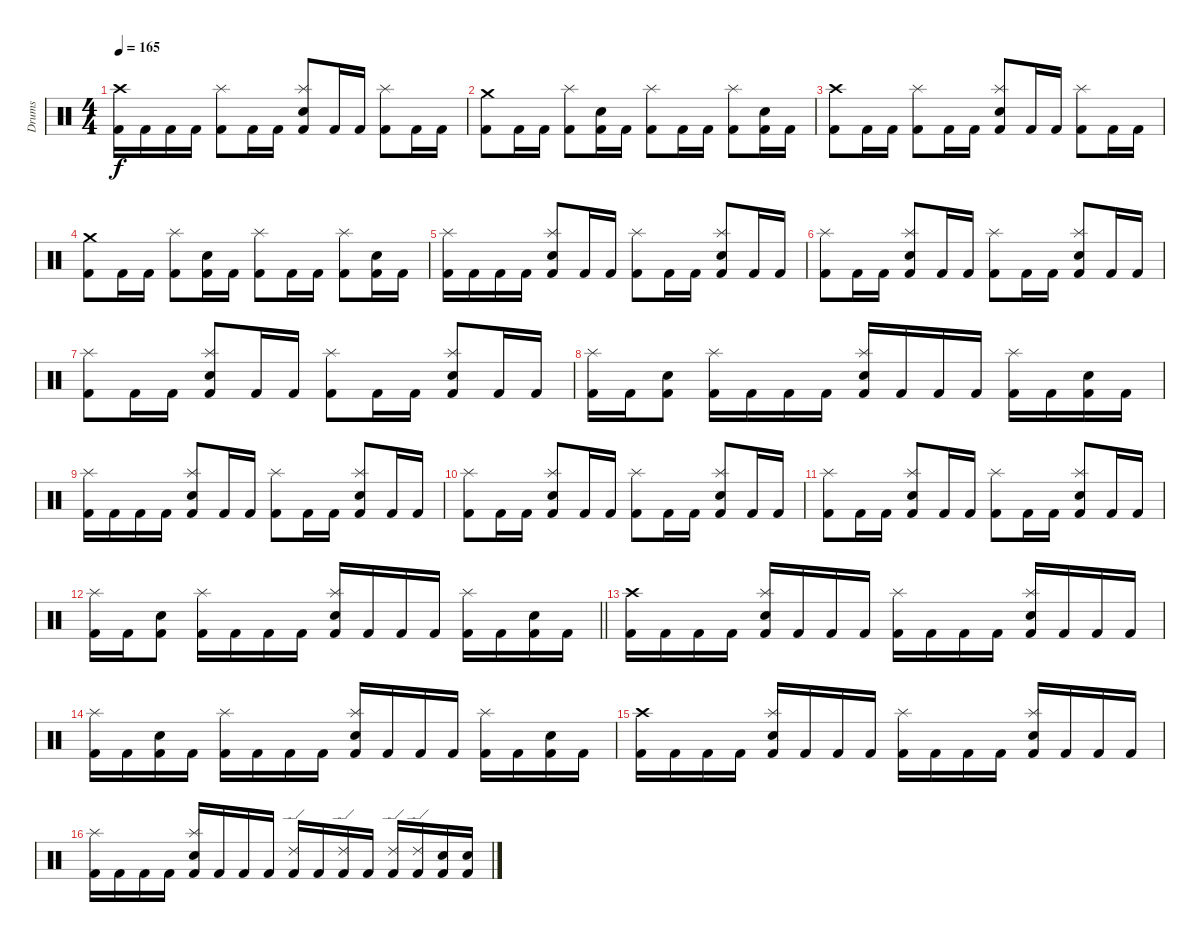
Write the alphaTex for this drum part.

\track ("Drums" "Drums") {instrument percussion}
\staff {score}
\articulation defaults
\ts (4 4)
\tempo 165
\clef neutral
\ks c
("Crash high (hit)" "Kick (hit) 2").16{dy f} "Kick (hit) 2".16 "Kick (hit) 2".16 "Kick (hit) 2".16 ("Splash (hit)" "Kick (hit) 2").8 "Kick (hit) 2".16 "Kick (hit) 2".16 ("Splash (hit)" "Snare (hit) 2" "Kick (hit) 2").8 "Kick (hit) 2".16 "Kick (hit) 2".16 ("Splash (hit)" "Kick (hit) 2").8 "Kick (hit) 2".16 "Kick (hit) 2".16 |
("Crash medium (hit)" "Kick (hit) 2").8 "Kick (hit) 2".16 "Kick (hit) 2".16 ("Splash (hit)" "Kick (hit) 2").8 ("Snare (hit) 2" "Kick (hit) 2").16 "Kick (hit) 2".16 ("Splash (hit)" "Kick (hit) 2").8 "Kick (hit) 2".16 "Kick (hit) 2".16 ("Splash (hit)" "Kick (hit) 2").8 ("Snare (hit) 2" "Kick (hit) 2").16 "Kick (hit) 2".16 |
("Crash high (hit)" "Kick (hit) 2").8 "Kick (hit) 2".16 "Kick (hit) 2".16 ("Splash (hit)" "Kick (hit) 2").8 "Kick (hit) 2".16 "Kick (hit) 2".16 ("Splash (hit)" "Snare (hit) 2" "Kick (hit) 2").8 "Kick (hit) 2".16 "Kick (hit) 2".16 ("Splash (hit)" "Kick (hit) 2").8 "Kick (hit) 2".16 "Kick (hit) 2".16 |
("Crash medium (hit)" "Kick (hit) 2").8 "Kick (hit) 2".16 "Kick (hit) 2".16 ("Splash (hit)" "Kick (hit) 2").8 ("Snare (hit) 2" "Kick (hit) 2").16 "Kick (hit) 2".16 ("Splash (hit)" "Kick (hit) 2").8 "Kick (hit) 2".16 "Kick (hit) 2".16 ("Splash (hit)" "Kick (hit) 2").8 ("Snare (hit) 2" "Kick (hit) 2").16 "Kick (hit) 2".16 |
("Splash (hit)" "Kick (hit) 2").16 "Kick (hit) 2".16 "Kick (hit) 2".16 "Kick (hit) 2".16 ("Splash (hit)" "Snare (hit) 2" "Kick (hit) 2").8 "Kick (hit) 2".16 "Kick (hit) 2".16 ("Splash (hit)" "Kick (hit) 2").8 "Kick (hit) 2".16 "Kick (hit) 2".16 ("Splash (hit)" "Snare (hit) 2" "Kick (hit) 2").8 "Kick (hit) 2".16 "Kick (hit) 2".16 |
("Splash (hit)" "Kick (hit) 2").8 "Kick (hit) 2".16 "Kick (hit) 2".16 ("Splash (hit)" "Snare (hit) 2" "Kick (hit) 2").8 "Kick (hit) 2".16 "Kick (hit) 2".16 ("Splash (hit)" "Kick (hit) 2").8 "Kick (hit) 2".16 "Kick (hit) 2".16 ("Splash (hit)" "Snare (hit) 2" "Kick (hit) 2").8 "Kick (hit) 2".16 "Kick (hit) 2".16 |
("Splash (hit)" "Kick (hit) 2").8 "Kick (hit) 2".16 "Kick (hit) 2".16 ("Splash (hit)" "Snare (hit) 2" "Kick (hit) 2").8 "Kick (hit) 2".16 "Kick (hit) 2".16 ("Splash (hit)" "Kick (hit) 2").8 "Kick (hit) 2".16 "Kick (hit) 2".16 ("Splash (hit)" "Snare (hit) 2" "Kick (hit) 2").8 "Kick (hit) 2".16 "Kick (hit) 2".16 |
("Splash (hit)" "Kick (hit) 2").16 "Kick (hit) 2".16 ("Snare (hit) 2" "Kick (hit) 2").8 ("Splash (hit)" "Kick (hit) 2").16 "Kick (hit) 2".16 "Kick (hit) 2".16 "Kick (hit) 2".16 ("Splash (hit)" "Snare (hit) 2" "Kick (hit) 2").16 "Kick (hit) 2".16 "Kick (hit) 2".16 "Kick (hit) 2".16 ("Splash (hit)" "Kick (hit) 2").16 "Kick (hit) 2".16 ("Snare (hit) 2" "Kick (hit) 2").16 "Kick (hit) 2".16 |
("Splash (hit)" "Kick (hit) 2").16 "Kick (hit) 2".16 "Kick (hit) 2".16 "Kick (hit) 2".16 ("Splash (hit)" "Snare (hit) 2" "Kick (hit) 2").8 "Kick (hit) 2".16 "Kick (hit) 2".16 ("Splash (hit)" "Kick (hit) 2").8 "Kick (hit) 2".16 "Kick (hit) 2".16 ("Splash (hit)" "Snare (hit) 2" "Kick (hit) 2").8 "Kick (hit) 2".16 "Kick (hit) 2".16 |
("Splash (hit)" "Kick (hit) 2").8 "Kick (hit) 2".16 "Kick (hit) 2".16 ("Splash (hit)" "Snare (hit) 2" "Kick (hit) 2").8 "Kick (hit) 2".16 "Kick (hit) 2".16 ("Splash (hit)" "Kick (hit) 2").8 "Kick (hit) 2".16 "Kick (hit) 2".16 ("Splash (hit)" "Snare (hit) 2" "Kick (hit) 2").8 "Kick (hit) 2".16 "Kick (hit) 2".16 |
("Splash (hit)" "Kick (hit) 2").8 "Kick (hit) 2".16 "Kick (hit) 2".16 ("Splash (hit)" "Snare (hit) 2" "Kick (hit) 2").8 "Kick (hit) 2".16 "Kick (hit) 2".16 ("Splash (hit)" "Kick (hit) 2").8 "Kick (hit) 2".16 "Kick (hit) 2".16 ("Splash (hit)" "Snare (hit) 2" "Kick (hit) 2").8 "Kick (hit) 2".16 "Kick (hit) 2".16 |
\barLineRight lightlight
("Splash (hit)" "Kick (hit) 2").16 "Kick (hit) 2".16 ("Snare (hit) 2" "Kick (hit) 2").8 ("Splash (hit)" "Kick (hit) 2").16 "Kick (hit) 2".16 "Kick (hit) 2".16 "Kick (hit) 2".16 ("Splash (hit)" "Snare (hit) 2" "Kick (hit) 2").16 "Kick (hit) 2".16 "Kick (hit) 2".16 "Kick (hit) 2".16 ("Splash (hit)" "Kick (hit) 2").16 "Kick (hit) 2".16 ("Snare (hit) 2" "Kick (hit) 2").16 "Kick (hit) 2".16 |
("Crash high (hit)" "Kick (hit) 2").16 "Kick (hit) 2".16 "Kick (hit) 2".16 "Kick (hit) 2".16 ("Splash (hit)" "Snare (hit) 2" "Kick (hit) 2").16 "Kick (hit) 2".16 "Kick (hit) 2".16 "Kick (hit) 2".16 ("Splash (hit)" "Kick (hit) 2").16 "Kick (hit) 2".16 "Kick (hit) 2".16 "Kick (hit) 2".16 ("Splash (hit)" "Snare (hit) 2" "Kick (hit) 2").16 "Kick (hit) 2".16 "Kick (hit) 2".16 "Kick (hit) 2".16 |
("Splash (hit)" "Kick (hit) 2").16 "Kick (hit) 2".16 ("Snare (hit) 2" "Kick (hit) 2").16 "Kick (hit) 2".16 ("Splash (hit)" "Kick (hit) 2").16 "Kick (hit) 2".16 "Kick (hit) 2".16 "Kick (hit) 2".16 ("Splash (hit)" "Snare (hit) 2" "Kick (hit) 2").16 "Kick (hit) 2".16 "Kick (hit) 2".16 "Kick (hit) 2".16 ("Splash (hit)" "Kick (hit) 2").16 "Kick (hit) 2".16 ("Snare (hit) 2" "Kick (hit) 2").16 "Kick (hit) 2".16 |
("Crash high (hit)" "Kick (hit) 2").16 "Kick (hit) 2".16 "Kick (hit) 2".16 "Kick (hit) 2".16 ("Splash (hit)" "Snare (hit) 2" "Kick (hit) 2").16 "Kick (hit) 2".16 "Kick (hit) 2".16 "Kick (hit) 2".16 ("Splash (hit)" "Kick (hit) 2").16 "Kick (hit) 2".16 "Kick (hit) 2".16 "Kick (hit) 2".16 ("Splash (hit)" "Snare (hit) 2" "Kick (hit) 2").16 "Kick (hit) 2".16 "Kick (hit) 2".16 "Kick (hit) 2".16 |
("Splash (hit)" "Kick (hit) 2").16 "Kick (hit) 2".16 "Kick (hit) 2".16 "Kick (hit) 2".16 ("Splash (hit)" "Snare (hit) 2" "Kick (hit) 2").16 "Kick (hit) 2".16 "Kick (hit) 2".16 "Kick (hit) 2".16 ("Ride (edge) 2" "Kick (hit) 2").16 "Kick (hit) 2".16 ("Ride (edge) 2" "Kick (hit) 2").16 "Kick (hit) 2".16 ("Ride (edge) 2" "Kick (hit) 2").16 ("Ride (edge) 2" "Kick (hit) 2").16 ("Snare (hit) 2" "Kick (hit) 2").16 ("Snare (hit) 2" "Kick (hit) 2").16
